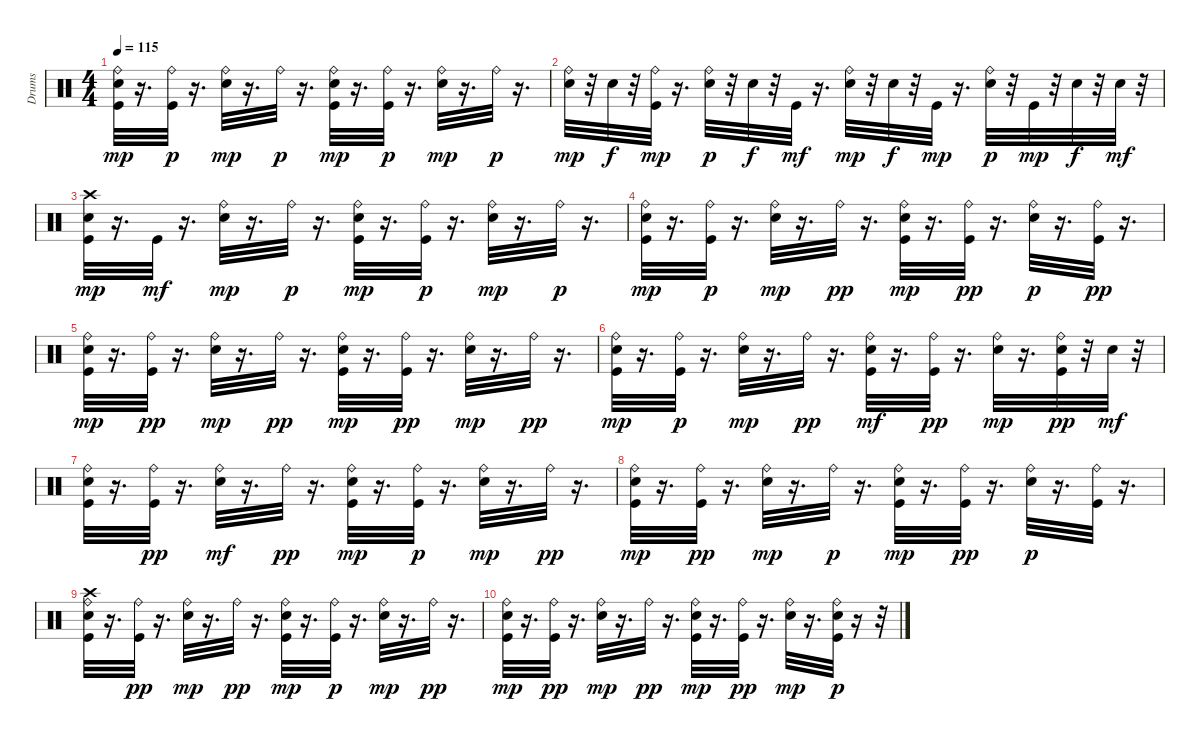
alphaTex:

\track ("Drums" "Drums") {instrument percussion}
\staff {score}
\articulation defaults
\ts (4 4)
\tempo 115
\clef neutral
\ks c
("Kick (hit)" "Electric Snare (hit)" "Ride (bell)").32{dy mp} r.16{d} ("Kick (hit)" "Ride (bell)").32{dy p} r.16{d} ("Electric Snare (hit)" "Ride (bell)").32{dy mp} r.16{d} "Ride (bell)".32{dy p} r.16{d} ("Kick (hit)" "Electric Snare (hit)" "Ride (bell)").32{dy mp} r.16{d} ("Kick (hit)" "Ride (bell)").32{dy p} r.16{d} ("Electric Snare (hit)" "Ride (bell)").32{dy mp} r.16{d} "Ride (bell)".32{dy p} r.16{d} |
("Electric Snare (hit)" "Ride (bell)").32{dy mp} r.32 "Electric Snare (hit)".32{dy f} r.32 ("Kick (hit)" "Ride (bell)").32{dy mp} r.16{d} ("Electric Snare (hit)" "Ride (bell)").32{dy p} r.32 "Electric Snare (hit)".32{dy f} r.32 "Kick (hit)".32{dy mf} r.16{d} ("Electric Snare (hit)" "Ride (bell)").32{dy mp} r.32 "Electric Snare (hit)".32{dy f} r.32 "Kick (hit)".32{dy mp} r.16{d} ("Electric Snare (hit)" "Ride (bell)").32{dy p} r.32 "Kick (hit)".32{dy mp} r.32 "Electric Snare (hit)".32{dy f} r.32 "Electric Snare (hit)".32{dy mf} r.32 |
("Kick (hit)" "Electric Snare (hit)" "Crash high (hit)").32{dy mp} r.16{d} "Kick (hit)".32{dy mf} r.16{d} ("Electric Snare (hit)" "Ride (bell)").32{dy mp} r.16{d} "Ride (bell)".32{dy p} r.16{d} ("Kick (hit)" "Electric Snare (hit)" "Ride (bell)").32{dy mp} r.16{d} ("Kick (hit)" "Ride (bell)").32{dy p} r.16{d} ("Electric Snare (hit)" "Ride (bell)").32{dy mp} r.16{d} "Ride (bell)".32{dy p} r.16{d} |
("Kick (hit)" "Electric Snare (hit)" "Ride (bell)").32{dy mp} r.16{d} ("Kick (hit)" "Ride (bell)").32{dy p} r.16{d} ("Electric Snare (hit)" "Ride (bell)").32{dy mp} r.16{d} "Ride (bell)".32{dy pp} r.16{d} ("Kick (hit)" "Electric Snare (hit)" "Ride (bell)").32{dy mp} r.16{d} ("Kick (hit)" "Ride (bell)").32{dy pp} r.16{d} ("Electric Snare (hit)" "Ride (bell)").32{dy p} r.16{d} ("Kick (hit)" "Ride (bell)").32{dy pp} r.16{d} |
("Kick (hit)" "Electric Snare (hit)" "Ride (bell)").32{dy mp} r.16{d} ("Kick (hit)" "Ride (bell)").32{dy pp} r.16{d} ("Electric Snare (hit)" "Ride (bell)").32{dy mp} r.16{d} "Ride (bell)".32{dy pp} r.16{d} ("Kick (hit)" "Electric Snare (hit)" "Ride (bell)").32{dy mp} r.16{d} ("Kick (hit)" "Ride (bell)").32{dy pp} r.16{d} ("Electric Snare (hit)" "Ride (bell)").32{dy mp} r.16{d} "Ride (bell)".32{dy pp} r.16{d} |
("Kick (hit)" "Electric Snare (hit)" "Ride (bell)").32{dy mp} r.16{d} ("Kick (hit)" "Ride (bell)").32{dy p} r.16{d} ("Electric Snare (hit)" "Ride (bell)").32{dy mp} r.16{d} "Ride (bell)".32{dy pp} r.16{d} ("Kick (hit)" "Electric Snare (hit)" "Ride (bell)").32{dy mf} r.16{d} ("Kick (hit)" "Ride (bell)").32{dy pp} r.16{d} ("Electric Snare (hit)" "Ride (bell)").32{dy mp} r.16{d} ("Kick (hit)" "Electric Snare (hit)" "Ride (bell)").32{dy pp} r.32 "Electric Snare (hit)".32{dy mf} r.32 |
("Kick (hit)" "Electric Snare (hit)" "Ride (bell)").32 r.16{d} ("Kick (hit)" "Ride (bell)").32{dy pp} r.16{d} ("Electric Snare (hit)" "Ride (bell)").32{dy mf} r.16{d} "Ride (bell)".32{dy pp} r.16{d} ("Kick (hit)" "Electric Snare (hit)" "Ride (bell)").32{dy mp} r.16{d} ("Kick (hit)" "Ride (bell)").32{dy p} r.16{d} ("Electric Snare (hit)" "Ride (bell)").32{dy mp} r.16{d} "Ride (bell)".32{dy pp} r.16{d} |
("Kick (hit)" "Electric Snare (hit)" "Ride (bell)").32{dy mp} r.16{d} ("Kick (hit)" "Ride (bell)").32{dy pp} r.16{d} ("Electric Snare (hit)" "Ride (bell)").32{dy mp} r.16{d} "Ride (bell)".32{dy p} r.16{d} ("Kick (hit)" "Electric Snare (hit)" "Ride (bell)").32{dy mp} r.16{d} ("Kick (hit)" "Ride (bell)").32{dy pp} r.16{d} ("Electric Snare (hit)" "Ride (bell)").32{dy p} r.16{d} ("Kick (hit)" "Ride (bell)").32 r.16{d} |
("Kick (hit)" "Electric Snare (hit)" "Crash high (hit)" "Ride (bell)").32 r.16{d} ("Kick (hit)" "Ride (bell)").32{dy pp} r.16{d} ("Electric Snare (hit)" "Ride (bell)").32{dy mp} r.16{d} "Ride (bell)".32{dy pp} r.16{d} ("Kick (hit)" "Electric Snare (hit)" "Ride (bell)").32{dy mp} r.16{d} ("Kick (hit)" "Ride (bell)").32{dy p} r.16{d} ("Electric Snare (hit)" "Ride (bell)").32{dy mp} r.16{d} "Ride (bell)".32{dy pp} r.16{d} |
("Kick (hit)" "Electric Snare (hit)" "Ride (bell)").32{dy mp} r.16{d} ("Kick (hit)" "Ride (bell)").32{dy pp} r.16{d} ("Electric Snare (hit)" "Ride (bell)").32{dy mp} r.16{d} "Ride (bell)".32{dy pp} r.16{d} ("Kick (hit)" "Electric Snare (hit)" "Ride (bell)").32{dy mp} r.16{d} ("Kick (hit)" "Ride (bell)").32{dy pp} r.16{d} ("Electric Snare (hit)" "Ride (bell)").32{dy mp} r.16{d} ("Kick (hit)" "Electric Snare (hit)" "Ride (bell)").32{dy p} r.16 r.32
